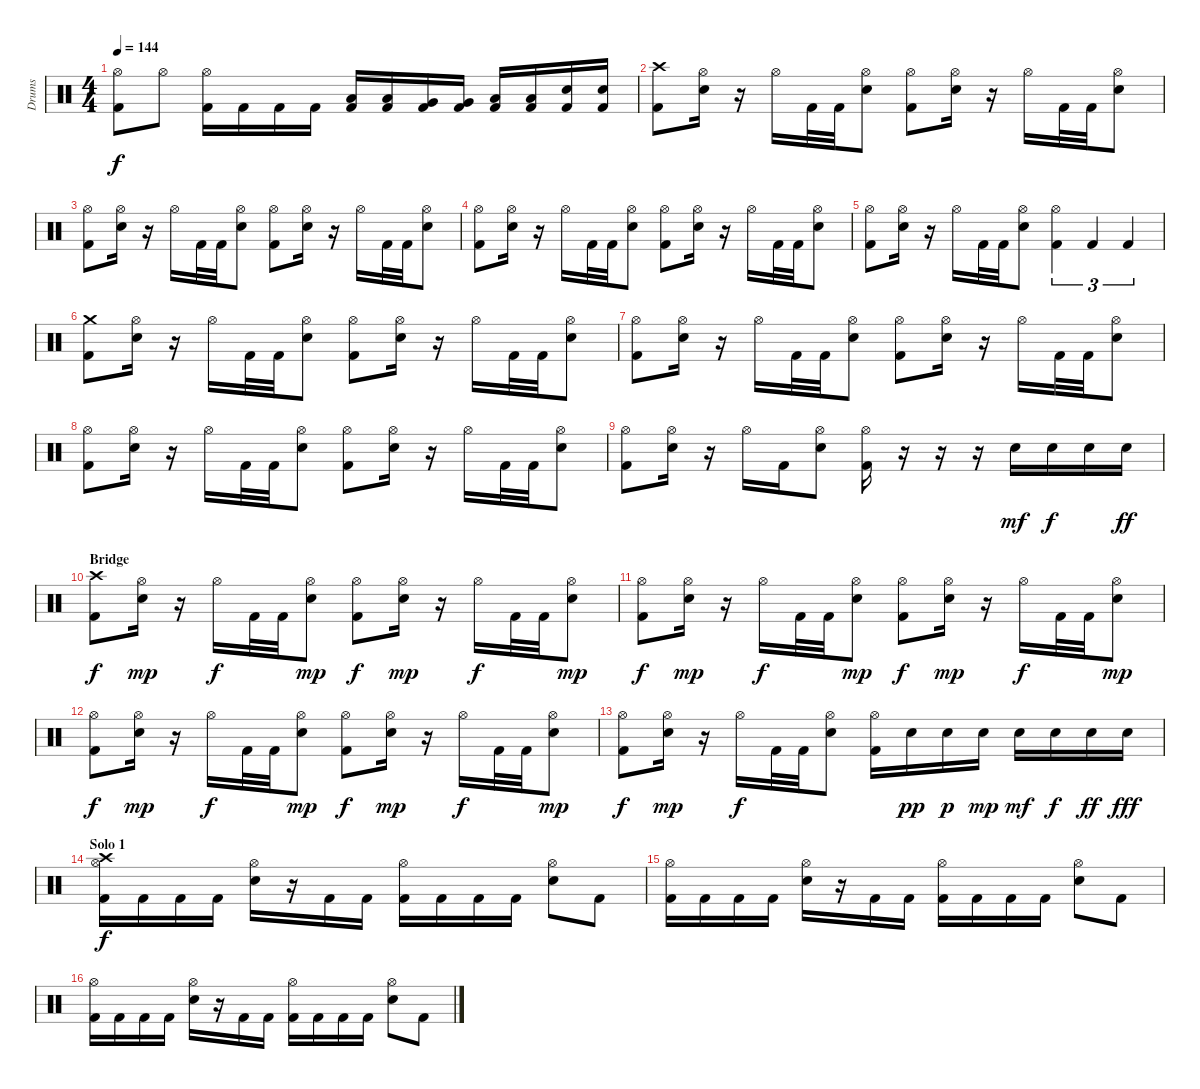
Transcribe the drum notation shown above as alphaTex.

\track ("Drums" "Drums") {instrument percussion}
\staff {score}
\articulation defaults
\ts (4 4)
\tempo 144
\clef neutral
\ks c
("Kick (hit) 2" "Hi-Hat (open)").8{dy f} "Hi-Hat (open)".8 ("Kick (hit) 2" "Hi-Hat (open)").16 "Kick (hit) 2".16 "Kick (hit) 2".16 "Kick (hit) 2".16 ("Kick (hit) 2" "Low Tom (hit)").16 ("Kick (hit) 2" "Low Tom (hit)").16 ("Kick (hit) 2" "Very Low Tom (hit)").16 ("Kick (hit) 2" "Very Low Tom (hit)").16 ("Kick (hit) 2" "Low Tom (hit)").16 ("Kick (hit) 2" "Low Tom (hit)").16 ("Kick (hit) 2" "Electric Snare (hit)").16 ("Kick (hit) 2" "Electric Snare (hit)").16 |
("Kick (hit) 2" "Crash high (hit)").8 ("Electric Snare (hit)" "Hi-Hat (open)").16 r.16 "Hi-Hat (open)".16 "Kick (hit) 2".32 "Kick (hit) 2".32 ("Electric Snare (hit)" "Hi-Hat (open)").8 ("Kick (hit) 2" "Hi-Hat (open)").8 ("Electric Snare (hit)" "Hi-Hat (open)").16 r.16 "Hi-Hat (open)".16 "Kick (hit) 2".32 "Kick (hit) 2".32 ("Electric Snare (hit)" "Hi-Hat (open)").8 |
("Kick (hit) 2" "Hi-Hat (open)").8 ("Electric Snare (hit)" "Hi-Hat (open)").16 r.16 "Hi-Hat (open)".16 "Kick (hit) 2".32 "Kick (hit) 2".32 ("Electric Snare (hit)" "Hi-Hat (open)").8 ("Kick (hit) 2" "Hi-Hat (open)").8 ("Electric Snare (hit)" "Hi-Hat (open)").16 r.16 "Hi-Hat (open)".16 "Kick (hit) 2".32 "Kick (hit) 2".32 ("Electric Snare (hit)" "Hi-Hat (open)").8 |
("Kick (hit) 2" "Hi-Hat (open)").8 ("Electric Snare (hit)" "Hi-Hat (open)").16 r.16 "Hi-Hat (open)".16 "Kick (hit) 2".32 "Kick (hit) 2".32 ("Electric Snare (hit)" "Hi-Hat (open)").8 ("Kick (hit) 2" "Hi-Hat (open)").8 ("Electric Snare (hit)" "Hi-Hat (open)").16 r.16 "Hi-Hat (open)".16 "Kick (hit) 2".32 "Kick (hit) 2".32 ("Electric Snare (hit)" "Hi-Hat (open)").8 |
("Kick (hit) 2" "Hi-Hat (open)").8 ("Electric Snare (hit)" "Hi-Hat (open)").16 r.16 "Hi-Hat (open)".16 "Kick (hit) 2".32 "Kick (hit) 2".32 ("Electric Snare (hit)" "Hi-Hat (open)").8 ("Kick (hit) 2" "Hi-Hat (open)").4{tu (3 2)} "Kick (hit) 2".4{tu (3 2)} "Kick (hit) 2".4{tu (3 2)} |
("Kick (hit) 2" "Crash medium (hit)").8 ("Electric Snare (hit)" "Hi-Hat (open)").16 r.16 "Hi-Hat (open)".16 "Kick (hit) 2".32 "Kick (hit) 2".32 ("Electric Snare (hit)" "Hi-Hat (open)").8 ("Kick (hit) 2" "Hi-Hat (open)").8 ("Electric Snare (hit)" "Hi-Hat (open)").16 r.16 "Hi-Hat (open)".16 "Kick (hit) 2".32 "Kick (hit) 2".32 ("Electric Snare (hit)" "Hi-Hat (open)").8 |
("Kick (hit) 2" "Hi-Hat (open)").8 ("Electric Snare (hit)" "Hi-Hat (open)").16 r.16 "Hi-Hat (open)".16 "Kick (hit) 2".32 "Kick (hit) 2".32 ("Electric Snare (hit)" "Hi-Hat (open)").8 ("Kick (hit) 2" "Hi-Hat (open)").8 ("Electric Snare (hit)" "Hi-Hat (open)").16 r.16 "Hi-Hat (open)".16 "Kick (hit) 2".32 "Kick (hit) 2".32 ("Electric Snare (hit)" "Hi-Hat (open)").8 |
("Kick (hit) 2" "Hi-Hat (open)").8 ("Electric Snare (hit)" "Hi-Hat (open)").16 r.16 "Hi-Hat (open)".16 "Kick (hit) 2".32 "Kick (hit) 2".32 ("Electric Snare (hit)" "Hi-Hat (open)").8 ("Kick (hit) 2" "Hi-Hat (open)").8 ("Electric Snare (hit)" "Hi-Hat (open)").16 r.16 "Hi-Hat (open)".16 "Kick (hit) 2".32 "Kick (hit) 2".32 ("Electric Snare (hit)" "Hi-Hat (open)").8 |
("Kick (hit) 2" "Hi-Hat (open)").8 ("Electric Snare (hit)" "Hi-Hat (open)").16 r.16 "Hi-Hat (open)".16 "Kick (hit) 2".16 ("Electric Snare (hit)" "Hi-Hat (open)").8 ("Kick (hit) 2" "Hi-Hat (open)").16 r.16 r.16 r.16 "Electric Snare (hit)".16{dy mf} "Electric Snare (hit)".16{dy f} "Electric Snare (hit)".16 "Electric Snare (hit)".16{dy ff} |
\section ("" "Bridge")
("Kick (hit) 2" "Crash high (hit)").8{dy f} ("Electric Snare (hit)" "Hi-Hat (open)").16{dy mp} r.16 "Hi-Hat (open)".16{dy f} "Kick (hit) 2".32 "Kick (hit) 2".32 ("Electric Snare (hit)" "Hi-Hat (open)").8{dy mp} ("Kick (hit) 2" "Hi-Hat (open)").8{dy f} ("Electric Snare (hit)" "Hi-Hat (open)").16{dy mp} r.16 "Hi-Hat (open)".16{dy f} "Kick (hit) 2".32 "Kick (hit) 2".32 ("Electric Snare (hit)" "Hi-Hat (open)").8{dy mp} |
("Kick (hit) 2" "Hi-Hat (open)").8{dy f} ("Electric Snare (hit)" "Hi-Hat (open)").16{dy mp} r.16 "Hi-Hat (open)".16{dy f} "Kick (hit) 2".32 "Kick (hit) 2".32 ("Electric Snare (hit)" "Hi-Hat (open)").8{dy mp} ("Kick (hit) 2" "Hi-Hat (open)").8{dy f} ("Electric Snare (hit)" "Hi-Hat (open)").16{dy mp} r.16 "Hi-Hat (open)".16{dy f} "Kick (hit) 2".32 "Kick (hit) 2".32 ("Electric Snare (hit)" "Hi-Hat (open)").8{dy mp} |
("Kick (hit) 2" "Hi-Hat (open)").8{dy f} ("Electric Snare (hit)" "Hi-Hat (open)").16{dy mp} r.16 "Hi-Hat (open)".16{dy f} "Kick (hit) 2".32 "Kick (hit) 2".32 ("Electric Snare (hit)" "Hi-Hat (open)").8{dy mp} ("Kick (hit) 2" "Hi-Hat (open)").8{dy f} ("Electric Snare (hit)" "Hi-Hat (open)").16{dy mp} r.16 "Hi-Hat (open)".16{dy f} "Kick (hit) 2".32 "Kick (hit) 2".32 ("Electric Snare (hit)" "Hi-Hat (open)").8{dy mp} |
("Kick (hit) 2" "Hi-Hat (open)").8{dy f} ("Electric Snare (hit)" "Hi-Hat (open)").16{dy mp} r.16 "Hi-Hat (open)".16{dy f} "Kick (hit) 2".32 "Kick (hit) 2".32 ("Electric Snare (hit)" "Hi-Hat (open)").8 ("Kick (hit) 2" "Hi-Hat (open)").16 "Electric Snare (hit)".16{dy pp} "Electric Snare (hit)".16{dy p} "Electric Snare (hit)".16{dy mp} "Electric Snare (hit)".16{dy mf} "Electric Snare (hit)".16{dy f} "Electric Snare (hit)".16{dy ff} "Electric Snare (hit)".16{dy fff} |
\section ("" "Solo 1")
("Kick (hit) 2" "Hi-Hat (open)" "Crash high (hit)").16{dy f} "Kick (hit) 2".16 "Kick (hit) 2".16 "Kick (hit) 2".16 ("Electric Snare (hit)" "Hi-Hat (open)").16 r.16 "Kick (hit) 2".16 "Kick (hit) 2".16 ("Kick (hit) 2" "Hi-Hat (open)").16 "Kick (hit) 2".16 "Kick (hit) 2".16 "Kick (hit) 2".16 ("Electric Snare (hit)" "Hi-Hat (open)").8 "Kick (hit) 2".8 |
("Kick (hit) 2" "Hi-Hat (open)").16 "Kick (hit) 2".16 "Kick (hit) 2".16 "Kick (hit) 2".16 ("Electric Snare (hit)" "Hi-Hat (open)").16 r.16 "Kick (hit) 2".16 "Kick (hit) 2".16 ("Kick (hit) 2" "Hi-Hat (open)").16 "Kick (hit) 2".16 "Kick (hit) 2".16 "Kick (hit) 2".16 ("Electric Snare (hit)" "Hi-Hat (open)").8 "Kick (hit) 2".8 |
("Kick (hit) 2" "Hi-Hat (open)").16 "Kick (hit) 2".16 "Kick (hit) 2".16 "Kick (hit) 2".16 ("Electric Snare (hit)" "Hi-Hat (open)").16 r.16 "Kick (hit) 2".16 "Kick (hit) 2".16 ("Kick (hit) 2" "Hi-Hat (open)").16 "Kick (hit) 2".16 "Kick (hit) 2".16 "Kick (hit) 2".16 ("Electric Snare (hit)" "Hi-Hat (open)").8 "Kick (hit) 2".8
